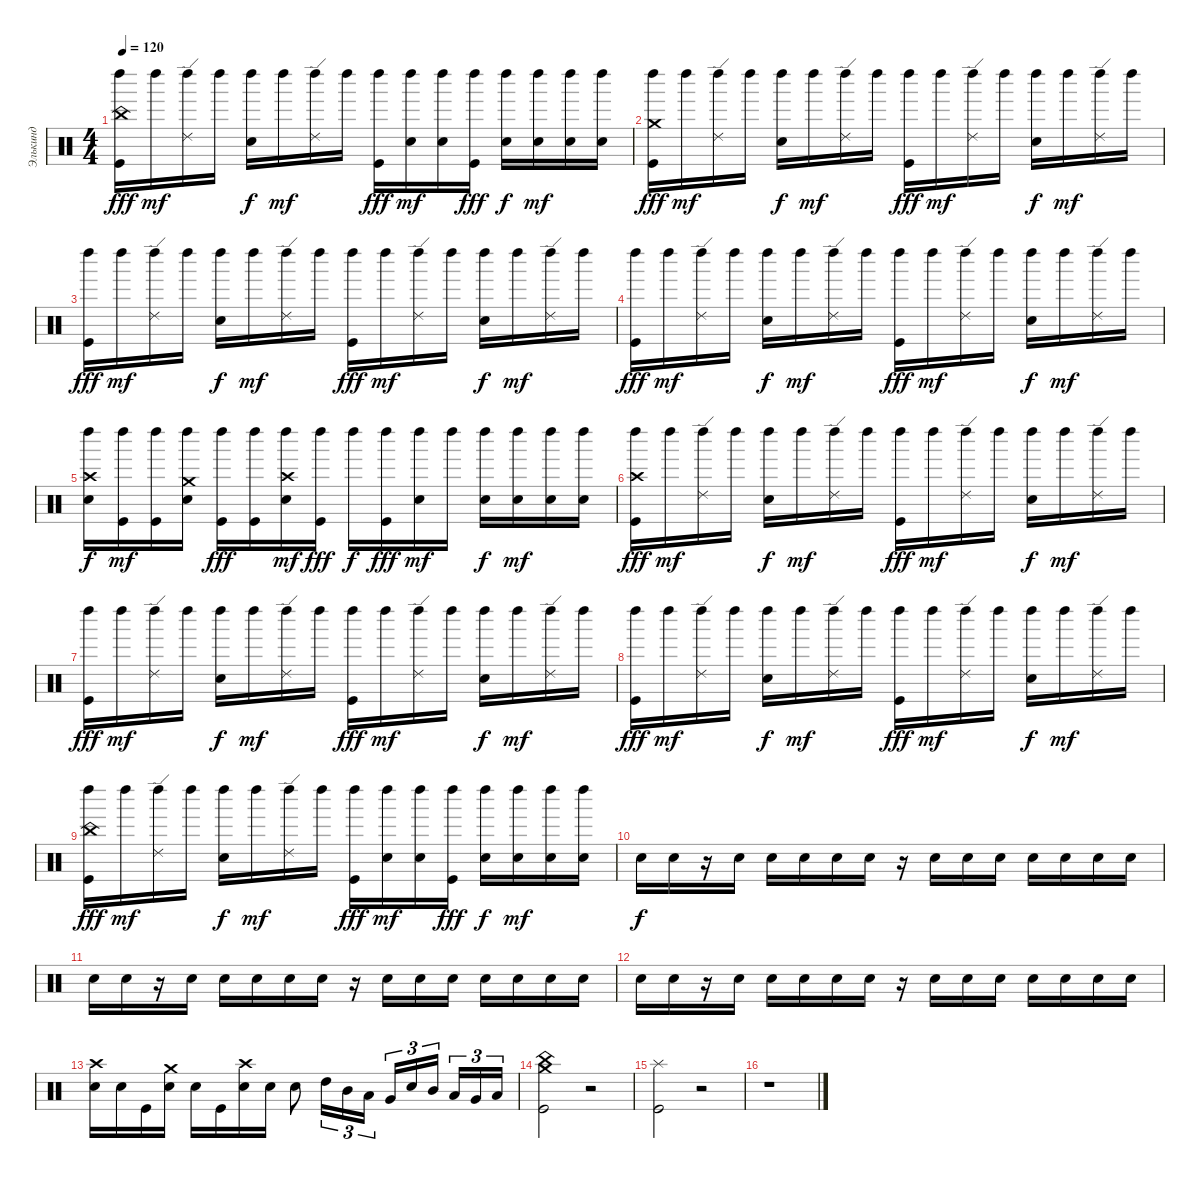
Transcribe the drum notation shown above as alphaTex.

\track ("Элькинд" "Элькинд") {instrument percussion}
\staff {score}
\articulation defaults
\ts (4 4)
\tempo 120
\clef neutral
\ks c
("Kick (hit)" "China (hit)" "Left Maraca (hit)").16{dy fff} "Left Maraca (hit)".16{dy mf} ("Left Maraca (hit)" "Ride (edge) 2").16 "Left Maraca (hit)".16 ("Electric Snare (hit)" "Left Maraca (hit)").16{dy f} "Left Maraca (hit)".16{dy mf} ("Ride (edge) 2" "Left Maraca (hit)").16 "Left Maraca (hit)".16 ("Left Maraca (hit)" "Kick (hit)").16{dy fff} ("Electric Snare (hit)" "Left Maraca (hit)").16{dy mf} ("Left Maraca (hit)" "Electric Snare (hit)").16 ("Left Maraca (hit)" "Kick (hit)").16{dy fff} ("Electric Snare (hit)" "Left Maraca (hit)").16{dy f} ("Left Maraca (hit)" "Electric Snare (hit)").16{dy mf} ("Left Maraca (hit)" "Electric Snare (hit)").16 ("Electric Snare (hit)" "Left Maraca (hit)").16 |
("Left Maraca (hit)" "Crash medium (hit)" "Kick (hit)").16{dy fff} "Left Maraca (hit)".16{dy mf} ("Left Maraca (hit)" "Ride (edge) 2").16 "Left Maraca (hit)".16 ("Left Maraca (hit)" "Electric Snare (hit)").16{dy f} "Left Maraca (hit)".16{dy mf} ("Left Maraca (hit)" "Ride (edge) 2").16 "Left Maraca (hit)".16 ("Left Maraca (hit)" "Kick (hit)").16{dy fff} "Left Maraca (hit)".16{dy mf} ("Left Maraca (hit)" "Ride (edge) 2").16 "Left Maraca (hit)".16 ("Left Maraca (hit)" "Electric Snare (hit)").16{dy f} "Left Maraca (hit)".16{dy mf} ("Left Maraca (hit)" "Ride (edge) 2").16 "Left Maraca (hit)".16 |
("Left Maraca (hit)" "Kick (hit)").16{dy fff} "Left Maraca (hit)".16{dy mf} ("Left Maraca (hit)" "Ride (edge) 2").16 "Left Maraca (hit)".16 ("Left Maraca (hit)" "Electric Snare (hit)").16{dy f} "Left Maraca (hit)".16{dy mf} ("Left Maraca (hit)" "Ride (edge) 2").16 "Left Maraca (hit)".16 ("Left Maraca (hit)" "Kick (hit)").16{dy fff} "Left Maraca (hit)".16{dy mf} ("Left Maraca (hit)" "Ride (edge) 2").16 "Left Maraca (hit)".16 ("Left Maraca (hit)" "Electric Snare (hit)").16{dy f} "Left Maraca (hit)".16{dy mf} ("Left Maraca (hit)" "Ride (edge) 2").16 "Left Maraca (hit)".16 |
("Left Maraca (hit)" "Kick (hit)").16{dy fff} "Left Maraca (hit)".16{dy mf} ("Left Maraca (hit)" "Ride (edge) 2").16 "Left Maraca (hit)".16 ("Left Maraca (hit)" "Electric Snare (hit)").16{dy f} "Left Maraca (hit)".16{dy mf} ("Left Maraca (hit)" "Ride (edge) 2").16 "Left Maraca (hit)".16 ("Left Maraca (hit)" "Kick (hit)").16{dy fff} "Left Maraca (hit)".16{dy mf} ("Left Maraca (hit)" "Ride (edge) 2").16 "Left Maraca (hit)".16 ("Left Maraca (hit)" "Electric Snare (hit)").16{dy f} "Left Maraca (hit)".16{dy mf} ("Left Maraca (hit)" "Ride (edge) 2").16 "Left Maraca (hit)".16 |
("Crash high (hit)" "Electric Snare (hit)" "Left Maraca (hit)").16{dy f} ("Kick (hit)" "Left Maraca (hit)").16{dy mf} ("Kick (hit)" "Left Maraca (hit)").16 ("Left Maraca (hit)" "Crash medium (hit)" "Electric Snare (hit)").16 ("Kick (hit)" "Left Maraca (hit)").16{dy fff} ("Left Maraca (hit)" "Kick (hit)").16 ("Left Maraca (hit)" "Crash high (hit)" "Electric Snare (hit)").16{dy mf} ("Left Maraca (hit)" "Kick (hit)").16{dy fff} "Left Maraca (hit)".16{dy f} ("Left Maraca (hit)" "Kick (hit)").16{dy fff} ("Electric Snare (hit)" "Left Maraca (hit)").16{dy mf} "Left Maraca (hit)".16 ("Left Maraca (hit)" "Electric Snare (hit)").16{dy f} ("Electric Snare (hit)" "Left Maraca (hit)").16{dy mf} ("Electric Snare (hit)" "Left Maraca (hit)").16 ("Electric Snare (hit)" "Left Maraca (hit)").16 |
("Left Maraca (hit)" "Crash high (hit)" "Kick (hit)").16{dy fff} "Left Maraca (hit)".16{dy mf} ("Left Maraca (hit)" "Ride (edge) 2").16 "Left Maraca (hit)".16 ("Left Maraca (hit)" "Electric Snare (hit)").16{dy f} "Left Maraca (hit)".16{dy mf} ("Left Maraca (hit)" "Ride (edge) 2").16 "Left Maraca (hit)".16 ("Left Maraca (hit)" "Kick (hit)").16{dy fff} "Left Maraca (hit)".16{dy mf} ("Left Maraca (hit)" "Ride (edge) 2").16 "Left Maraca (hit)".16 ("Left Maraca (hit)" "Electric Snare (hit)").16{dy f} "Left Maraca (hit)".16{dy mf} ("Left Maraca (hit)" "Ride (edge) 2").16 "Left Maraca (hit)".16 |
("Left Maraca (hit)" "Kick (hit)").16{dy fff} "Left Maraca (hit)".16{dy mf} ("Left Maraca (hit)" "Ride (edge) 2").16 "Left Maraca (hit)".16 ("Left Maraca (hit)" "Electric Snare (hit)").16{dy f} "Left Maraca (hit)".16{dy mf} ("Left Maraca (hit)" "Ride (edge) 2").16 "Left Maraca (hit)".16 ("Left Maraca (hit)" "Kick (hit)").16{dy fff} "Left Maraca (hit)".16{dy mf} ("Left Maraca (hit)" "Ride (edge) 2").16 "Left Maraca (hit)".16 ("Left Maraca (hit)" "Electric Snare (hit)").16{dy f} "Left Maraca (hit)".16{dy mf} ("Left Maraca (hit)" "Ride (edge) 2").16 "Left Maraca (hit)".16 |
("Left Maraca (hit)" "Kick (hit)").16{dy fff} "Left Maraca (hit)".16{dy mf} ("Left Maraca (hit)" "Ride (edge) 2").16 "Left Maraca (hit)".16 ("Left Maraca (hit)" "Electric Snare (hit)").16{dy f} "Left Maraca (hit)".16{dy mf} ("Left Maraca (hit)" "Ride (edge) 2").16 "Left Maraca (hit)".16 ("Left Maraca (hit)" "Kick (hit)").16{dy fff} "Left Maraca (hit)".16{dy mf} ("Left Maraca (hit)" "Ride (edge) 2").16 "Left Maraca (hit)".16 ("Left Maraca (hit)" "Electric Snare (hit)").16{dy f} "Left Maraca (hit)".16{dy mf} ("Left Maraca (hit)" "Ride (edge) 2").16 "Left Maraca (hit)".16 |
("Kick (hit)" "China (hit)" "Left Maraca (hit)").16{dy fff} "Left Maraca (hit)".16{dy mf} ("Left Maraca (hit)" "Ride (edge) 2").16 "Left Maraca (hit)".16 ("Electric Snare (hit)" "Left Maraca (hit)").16{dy f} "Left Maraca (hit)".16{dy mf} ("Ride (edge) 2" "Left Maraca (hit)").16 "Left Maraca (hit)".16 ("Left Maraca (hit)" "Kick (hit)").16{dy fff} ("Electric Snare (hit)" "Left Maraca (hit)").16{dy mf} ("Left Maraca (hit)" "Electric Snare (hit)").16 ("Left Maraca (hit)" "Kick (hit)").16{dy fff} ("Electric Snare (hit)" "Left Maraca (hit)").16{dy f} ("Left Maraca (hit)" "Electric Snare (hit)").16{dy mf} ("Left Maraca (hit)" "Electric Snare (hit)").16 ("Electric Snare (hit)" "Left Maraca (hit)").16 |
"Electric Snare (hit)".16{dy f} "Electric Snare (hit)".16 r.16 "Electric Snare (hit)".16 "Electric Snare (hit)".16 "Electric Snare (hit)".16 "Electric Snare (hit)".16 "Electric Snare (hit)".16 r.16 "Electric Snare (hit)".16 "Electric Snare (hit)".16 "Electric Snare (hit)".16 "Electric Snare (hit)".16 "Electric Snare (hit)".16 "Electric Snare (hit)".16 "Electric Snare (hit)".16 |
"Electric Snare (hit)".16 "Electric Snare (hit)".16 r.16 "Electric Snare (hit)".16 "Electric Snare (hit)".16 "Electric Snare (hit)".16 "Electric Snare (hit)".16 "Electric Snare (hit)".16 r.16 "Electric Snare (hit)".16 "Electric Snare (hit)".16 "Electric Snare (hit)".16 "Electric Snare (hit)".16 "Electric Snare (hit)".16 "Electric Snare (hit)".16 "Electric Snare (hit)".16 |
"Electric Snare (hit)".16 "Electric Snare (hit)".16 r.16 "Electric Snare (hit)".16 "Electric Snare (hit)".16 "Electric Snare (hit)".16 "Electric Snare (hit)".16 "Electric Snare (hit)".16 r.16 "Electric Snare (hit)".16 "Electric Snare (hit)".16 "Electric Snare (hit)".16 "Electric Snare (hit)".16 "Electric Snare (hit)".16 "Electric Snare (hit)".16 "Electric Snare (hit)".16 |
("Crash high (hit)" "Electric Snare (hit)").16 "Electric Snare (hit)".16 "Kick (hit)".16 ("Crash medium (hit)" "Electric Snare (hit)").16 "Electric Snare (hit)".16 "Kick (hit)".16 ("Crash high (hit)" "Electric Snare (hit)").16 "Electric Snare (hit)".16 "Electric Snare (hit)".8 "High Tom (hit)".16{tu (3 2)} "Mid Tom (hit)".16{tu (3 2)} "Low Tom (hit)".16{tu (3 2)} "Very Low Tom (hit)".16{tu (3 2)} "Electric Snare (hit)".16{tu (3 2)} "Mid Tom (hit)".16{tu (3 2) beam splitsecondary} "Low Tom (hit)".16{tu (3 2)} "Very Low Tom (hit)".16{tu (3 2)} "Low Floor Tom (hit)".16{tu (3 2)} |
("Crash medium (hit)" "China (hit)" "Kick (hit)").2 r.2 |
("Splash (hit)" "Kick (hit)").2 r.2 |
r.1
